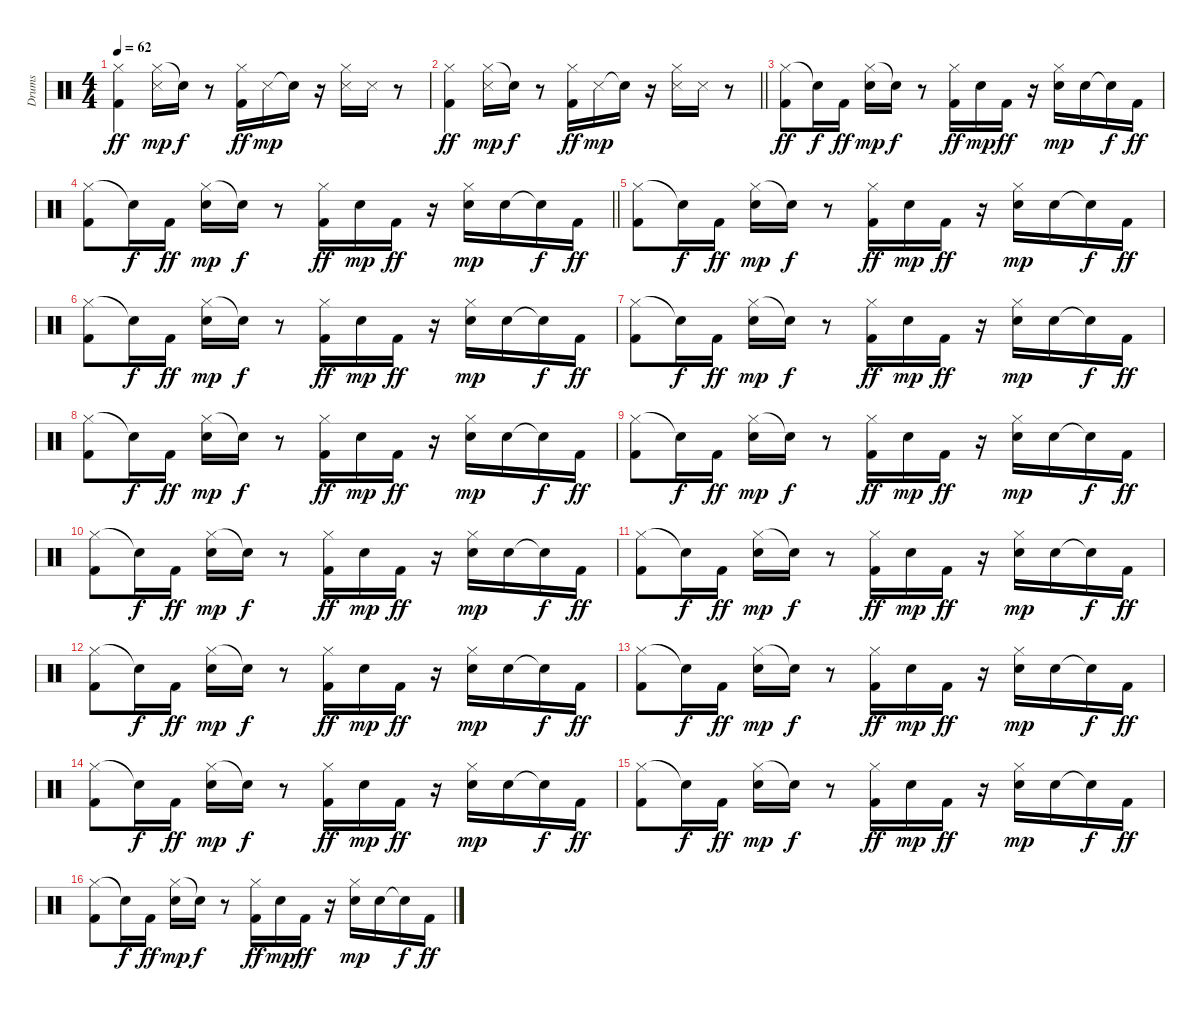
\track ("Drums" "Drums") {instrument percussion}
\staff {score}
\articulation defaults
\ts (4 4)
\tempo 62
\clef neutral
\ks c
("Hi-Hat (closed)" "Kick (hit) 2").4{dy ff} ("Hi-Hat (closed)" "Snare (side stick) 3").16{dy mp} "Snare (hit)"{t}.16{dy f} r.8 ("Hi-Hat (closed)" "Kick (hit) 2").16{dy ff} "Snare (side stick) 3".16{dy mp} "Snare (hit)"{t}.16 r.16 ("Hi-Hat (closed)" "Snare (side stick) 3").16 "Snare (side stick) 3".16 r.8 |
\barLineRight lightlight
("Hi-Hat (closed)" "Kick (hit) 2").4{dy ff} ("Hi-Hat (closed)" "Snare (side stick) 3").16{dy mp} "Snare (hit)"{t}.16{dy f} r.8 ("Hi-Hat (closed)" "Kick (hit) 2").16{dy ff} "Snare (side stick) 3".16{dy mp} "Snare (hit)"{t}.16 r.16 ("Hi-Hat (closed)" "Snare (side stick) 3").16 "Snare (side stick) 3".16 r.8 |
\section ("" "")
("Hi-Hat (closed)" "Kick (hit) 2").8{dy ff} "Snare (hit)"{t}.16{dy f} "Kick (hit) 2".16{dy ff} ("Hi-Hat (closed)" "Snare (hit) 2").16{dy mp} "Snare (hit)"{t}.16{dy f} r.8 ("Hi-Hat (closed)" "Kick (hit) 2").16{dy ff} "Snare (hit) 2".16{dy mp} "Kick (hit) 2".16{dy ff} r.16 ("Hi-Hat (closed)" "Snare (hit) 2").16{dy mp} "Snare (hit) 2".16 "Snare (hit)"{t}.16{dy f} "Kick (hit) 2".16{dy ff} |
\barLineRight lightlight
("Hi-Hat (closed)" "Kick (hit) 2").8 "Snare (hit)"{t}.16{dy f} "Kick (hit) 2".16{dy ff} ("Hi-Hat (closed)" "Snare (hit) 2").16{dy mp} "Snare (hit)"{t}.16{dy f} r.8 ("Hi-Hat (closed)" "Kick (hit) 2").16{dy ff} "Snare (hit) 2".16{dy mp} "Kick (hit) 2".16{dy ff} r.16 ("Hi-Hat (closed)" "Snare (hit) 2").16{dy mp} "Snare (hit) 2".16 "Snare (hit)"{t}.16{dy f} "Kick (hit) 2".16{dy ff} |
\section ("" "")
("Hi-Hat (closed)" "Kick (hit) 2").8 "Snare (hit)"{t}.16{dy f} "Kick (hit) 2".16{dy ff} ("Hi-Hat (closed)" "Snare (hit) 2").16{dy mp} "Snare (hit)"{t}.16{dy f} r.8 ("Hi-Hat (closed)" "Kick (hit) 2").16{dy ff} "Snare (hit) 2".16{dy mp} "Kick (hit) 2".16{dy ff} r.16 ("Hi-Hat (closed)" "Snare (hit) 2").16{dy mp} "Snare (hit) 2".16 "Snare (hit)"{t}.16{dy f} "Kick (hit) 2".16{dy ff} |
("Hi-Hat (closed)" "Kick (hit) 2").8 "Snare (hit)"{t}.16{dy f} "Kick (hit) 2".16{dy ff} ("Hi-Hat (closed)" "Snare (hit) 2").16{dy mp} "Snare (hit)"{t}.16{dy f} r.8 ("Hi-Hat (closed)" "Kick (hit) 2").16{dy ff} "Snare (hit) 2".16{dy mp} "Kick (hit) 2".16{dy ff} r.16 ("Hi-Hat (closed)" "Snare (hit) 2").16{dy mp} "Snare (hit) 2".16 "Snare (hit)"{t}.16{dy f} "Kick (hit) 2".16{dy ff} |
("Hi-Hat (closed)" "Kick (hit) 2").8 "Snare (hit)"{t}.16{dy f} "Kick (hit) 2".16{dy ff} ("Hi-Hat (closed)" "Snare (hit) 2").16{dy mp} "Snare (hit)"{t}.16{dy f} r.8 ("Hi-Hat (closed)" "Kick (hit) 2").16{dy ff} "Snare (hit) 2".16{dy mp} "Kick (hit) 2".16{dy ff} r.16 ("Hi-Hat (closed)" "Snare (hit) 2").16{dy mp} "Snare (hit) 2".16 "Snare (hit)"{t}.16{dy f} "Kick (hit) 2".16{dy ff} |
("Hi-Hat (closed)" "Kick (hit) 2").8 "Snare (hit)"{t}.16{dy f} "Kick (hit) 2".16{dy ff} ("Hi-Hat (closed)" "Snare (hit) 2").16{dy mp} "Snare (hit)"{t}.16{dy f} r.8 ("Hi-Hat (closed)" "Kick (hit) 2").16{dy ff} "Snare (hit) 2".16{dy mp} "Kick (hit) 2".16{dy ff} r.16 ("Hi-Hat (closed)" "Snare (hit) 2").16{dy mp} "Snare (hit) 2".16 "Snare (hit)"{t}.16{dy f} "Kick (hit) 2".16{dy ff} |
("Hi-Hat (closed)" "Kick (hit) 2").8 "Snare (hit)"{t}.16{dy f} "Kick (hit) 2".16{dy ff} ("Hi-Hat (closed)" "Snare (hit) 2").16{dy mp} "Snare (hit)"{t}.16{dy f} r.8 ("Hi-Hat (closed)" "Kick (hit) 2").16{dy ff} "Snare (hit) 2".16{dy mp} "Kick (hit) 2".16{dy ff} r.16 ("Hi-Hat (closed)" "Snare (hit) 2").16{dy mp} "Snare (hit) 2".16 "Snare (hit)"{t}.16{dy f} "Kick (hit) 2".16{dy ff} |
("Hi-Hat (closed)" "Kick (hit) 2").8 "Snare (hit)"{t}.16{dy f} "Kick (hit) 2".16{dy ff} ("Hi-Hat (closed)" "Snare (hit) 2").16{dy mp} "Snare (hit)"{t}.16{dy f} r.8 ("Hi-Hat (closed)" "Kick (hit) 2").16{dy ff} "Snare (hit) 2".16{dy mp} "Kick (hit) 2".16{dy ff} r.16 ("Hi-Hat (closed)" "Snare (hit) 2").16{dy mp} "Snare (hit) 2".16 "Snare (hit)"{t}.16{dy f} "Kick (hit) 2".16{dy ff} |
("Hi-Hat (closed)" "Kick (hit) 2").8 "Snare (hit)"{t}.16{dy f} "Kick (hit) 2".16{dy ff} ("Hi-Hat (closed)" "Snare (hit) 2").16{dy mp} "Snare (hit)"{t}.16{dy f} r.8 ("Hi-Hat (closed)" "Kick (hit) 2").16{dy ff} "Snare (hit) 2".16{dy mp} "Kick (hit) 2".16{dy ff} r.16 ("Hi-Hat (closed)" "Snare (hit) 2").16{dy mp} "Snare (hit) 2".16 "Snare (hit)"{t}.16{dy f} "Kick (hit) 2".16{dy ff} |
("Hi-Hat (closed)" "Kick (hit) 2").8 "Snare (hit)"{t}.16{dy f} "Kick (hit) 2".16{dy ff} ("Hi-Hat (closed)" "Snare (hit) 2").16{dy mp} "Snare (hit)"{t}.16{dy f} r.8 ("Hi-Hat (closed)" "Kick (hit) 2").16{dy ff} "Snare (hit) 2".16{dy mp} "Kick (hit) 2".16{dy ff} r.16 ("Hi-Hat (closed)" "Snare (hit) 2").16{dy mp} "Snare (hit) 2".16 "Snare (hit)"{t}.16{dy f} "Kick (hit) 2".16{dy ff} |
("Hi-Hat (closed)" "Kick (hit) 2").8 "Snare (hit)"{t}.16{dy f} "Kick (hit) 2".16{dy ff} ("Hi-Hat (closed)" "Snare (hit) 2").16{dy mp} "Snare (hit)"{t}.16{dy f} r.8 ("Hi-Hat (closed)" "Kick (hit) 2").16{dy ff} "Snare (hit) 2".16{dy mp} "Kick (hit) 2".16{dy ff} r.16 ("Hi-Hat (closed)" "Snare (hit) 2").16{dy mp} "Snare (hit) 2".16 "Snare (hit)"{t}.16{dy f} "Kick (hit) 2".16{dy ff} |
("Hi-Hat (closed)" "Kick (hit) 2").8 "Snare (hit)"{t}.16{dy f} "Kick (hit) 2".16{dy ff} ("Hi-Hat (closed)" "Snare (hit) 2").16{dy mp} "Snare (hit)"{t}.16{dy f} r.8 ("Hi-Hat (closed)" "Kick (hit) 2").16{dy ff} "Snare (hit) 2".16{dy mp} "Kick (hit) 2".16{dy ff} r.16 ("Hi-Hat (closed)" "Snare (hit) 2").16{dy mp} "Snare (hit) 2".16 "Snare (hit)"{t}.16{dy f} "Kick (hit) 2".16{dy ff} |
("Hi-Hat (closed)" "Kick (hit) 2").8 "Snare (hit)"{t}.16{dy f} "Kick (hit) 2".16{dy ff} ("Hi-Hat (closed)" "Snare (hit) 2").16{dy mp} "Snare (hit)"{t}.16{dy f} r.8 ("Hi-Hat (closed)" "Kick (hit) 2").16{dy ff} "Snare (hit) 2".16{dy mp} "Kick (hit) 2".16{dy ff} r.16 ("Hi-Hat (closed)" "Snare (hit) 2").16{dy mp} "Snare (hit) 2".16 "Snare (hit)"{t}.16{dy f} "Kick (hit) 2".16{dy ff} |
("Hi-Hat (closed)" "Kick (hit) 2").8 "Snare (hit)"{t}.16{dy f} "Kick (hit) 2".16{dy ff} ("Hi-Hat (closed)" "Snare (hit) 2").16{dy mp} "Snare (hit)"{t}.16{dy f} r.8 ("Hi-Hat (closed)" "Kick (hit) 2").16{dy ff} "Snare (hit) 2".16{dy mp} "Kick (hit) 2".16{dy ff} r.16 ("Hi-Hat (closed)" "Snare (hit) 2").16{dy mp} "Snare (hit) 2".16 "Snare (hit)"{t}.16{dy f} "Kick (hit) 2".16{dy ff}
